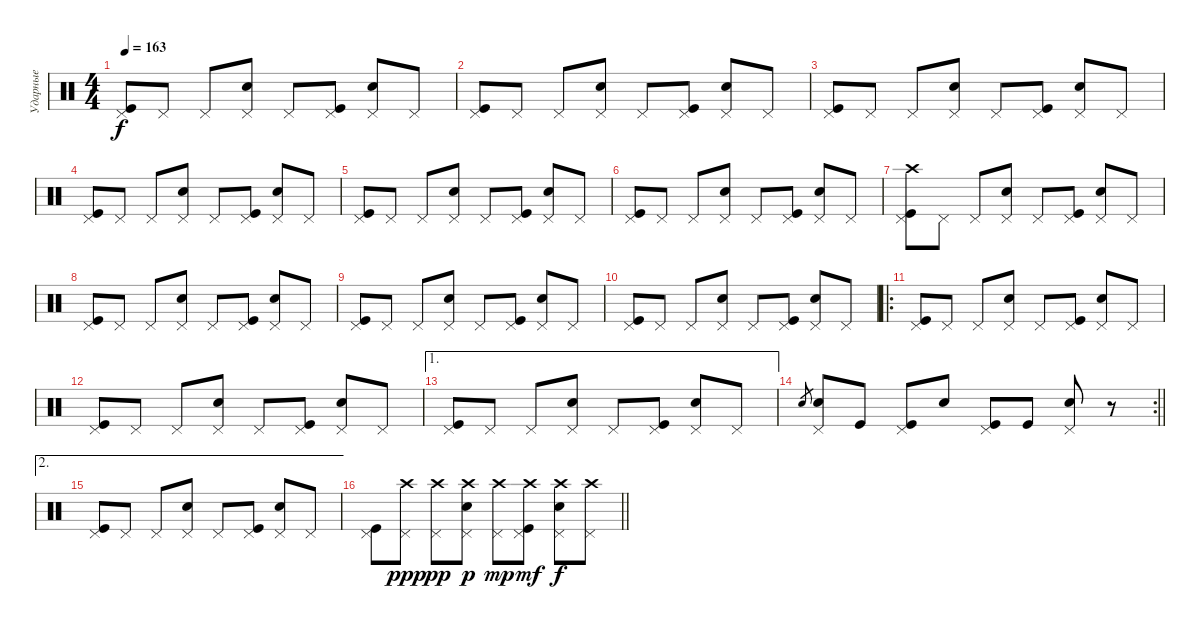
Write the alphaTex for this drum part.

\track ("Ударные" "Ударные") {instrument percussion}
\staff {score}
\articulation defaults
\ts (4 4)
\tempo 163
\clef neutral
\ks c
("Kick (hit)" "Pedal Hi-Hat (hit)").8{dy f} "Pedal Hi-Hat (hit)".8 "Pedal Hi-Hat (hit)".8 ("Pedal Hi-Hat (hit)" "Snare (hit) 2").8 "Pedal Hi-Hat (hit)".8 ("Kick (hit)" "Pedal Hi-Hat (hit)").8 ("Pedal Hi-Hat (hit)" "Snare (hit) 2").8 "Pedal Hi-Hat (hit)".8 |
("Kick (hit)" "Pedal Hi-Hat (hit)").8 "Pedal Hi-Hat (hit)".8 "Pedal Hi-Hat (hit)".8 ("Pedal Hi-Hat (hit)" "Snare (hit) 2").8 "Pedal Hi-Hat (hit)".8 ("Kick (hit)" "Pedal Hi-Hat (hit)").8 ("Pedal Hi-Hat (hit)" "Snare (hit) 2").8 "Pedal Hi-Hat (hit)".8 |
("Kick (hit)" "Pedal Hi-Hat (hit)").8 "Pedal Hi-Hat (hit)".8 "Pedal Hi-Hat (hit)".8 ("Pedal Hi-Hat (hit)" "Snare (hit) 2").8 "Pedal Hi-Hat (hit)".8 ("Kick (hit)" "Pedal Hi-Hat (hit)").8 ("Pedal Hi-Hat (hit)" "Snare (hit) 2").8 "Pedal Hi-Hat (hit)".8 |
("Kick (hit)" "Pedal Hi-Hat (hit)").8 "Pedal Hi-Hat (hit)".8 "Pedal Hi-Hat (hit)".8 ("Pedal Hi-Hat (hit)" "Snare (hit) 2").8 "Pedal Hi-Hat (hit)".8 ("Kick (hit)" "Pedal Hi-Hat (hit)").8 ("Pedal Hi-Hat (hit)" "Snare (hit) 2").8 "Pedal Hi-Hat (hit)".8 |
("Kick (hit)" "Pedal Hi-Hat (hit)").8 "Pedal Hi-Hat (hit)".8 "Pedal Hi-Hat (hit)".8 ("Pedal Hi-Hat (hit)" "Snare (hit) 2").8 "Pedal Hi-Hat (hit)".8 ("Kick (hit)" "Pedal Hi-Hat (hit)").8 ("Pedal Hi-Hat (hit)" "Snare (hit) 2").8 "Pedal Hi-Hat (hit)".8 |
("Kick (hit)" "Pedal Hi-Hat (hit)").8 "Pedal Hi-Hat (hit)".8 "Pedal Hi-Hat (hit)".8 ("Pedal Hi-Hat (hit)" "Snare (hit) 2").8 "Pedal Hi-Hat (hit)".8 ("Kick (hit)" "Pedal Hi-Hat (hit)").8 ("Pedal Hi-Hat (hit)" "Snare (hit) 2").8 "Pedal Hi-Hat (hit)".8 |
("Kick (hit)" "Pedal Hi-Hat (hit)" "Crash high (hit)").8 "Pedal Hi-Hat (hit)".8 "Pedal Hi-Hat (hit)".8 ("Pedal Hi-Hat (hit)" "Snare (hit) 2").8 "Pedal Hi-Hat (hit)".8 ("Kick (hit)" "Pedal Hi-Hat (hit)").8 ("Pedal Hi-Hat (hit)" "Snare (hit) 2").8 "Pedal Hi-Hat (hit)".8 |
("Kick (hit)" "Pedal Hi-Hat (hit)").8 "Pedal Hi-Hat (hit)".8 "Pedal Hi-Hat (hit)".8 ("Pedal Hi-Hat (hit)" "Snare (hit) 2").8 "Pedal Hi-Hat (hit)".8 ("Kick (hit)" "Pedal Hi-Hat (hit)").8 ("Pedal Hi-Hat (hit)" "Snare (hit) 2").8 "Pedal Hi-Hat (hit)".8 |
("Kick (hit)" "Pedal Hi-Hat (hit)").8 "Pedal Hi-Hat (hit)".8 "Pedal Hi-Hat (hit)".8 ("Pedal Hi-Hat (hit)" "Snare (hit) 2").8 "Pedal Hi-Hat (hit)".8 ("Kick (hit)" "Pedal Hi-Hat (hit)").8 ("Pedal Hi-Hat (hit)" "Snare (hit) 2").8 "Pedal Hi-Hat (hit)".8 |
("Kick (hit)" "Pedal Hi-Hat (hit)").8 "Pedal Hi-Hat (hit)".8 "Pedal Hi-Hat (hit)".8 ("Pedal Hi-Hat (hit)" "Snare (hit) 2").8 "Pedal Hi-Hat (hit)".8 ("Kick (hit)" "Pedal Hi-Hat (hit)").8 ("Pedal Hi-Hat (hit)" "Snare (hit) 2").8 "Pedal Hi-Hat (hit)".8 |
\ro
("Kick (hit)" "Pedal Hi-Hat (hit)").8 "Pedal Hi-Hat (hit)".8 "Pedal Hi-Hat (hit)".8 ("Pedal Hi-Hat (hit)" "Snare (hit) 2").8 "Pedal Hi-Hat (hit)".8 ("Kick (hit)" "Pedal Hi-Hat (hit)").8 ("Pedal Hi-Hat (hit)" "Snare (hit) 2").8 "Pedal Hi-Hat (hit)".8 |
("Kick (hit)" "Pedal Hi-Hat (hit)").8 "Pedal Hi-Hat (hit)".8 "Pedal Hi-Hat (hit)".8 ("Pedal Hi-Hat (hit)" "Snare (hit) 2").8 "Pedal Hi-Hat (hit)".8 ("Kick (hit)" "Pedal Hi-Hat (hit)").8 ("Pedal Hi-Hat (hit)" "Snare (hit) 2").8 "Pedal Hi-Hat (hit)".8 |
\ae 1
("Kick (hit)" "Pedal Hi-Hat (hit)").8 "Pedal Hi-Hat (hit)".8 "Pedal Hi-Hat (hit)".8 ("Pedal Hi-Hat (hit)" "Snare (hit) 2").8 "Pedal Hi-Hat (hit)".8 ("Kick (hit)" "Pedal Hi-Hat (hit)").8 ("Pedal Hi-Hat (hit)" "Snare (hit) 2").8 "Pedal Hi-Hat (hit)".8 |
\rc 2
\barLineRight lightlight "Snare (hit) 2".8{gr}
("Pedal Hi-Hat (hit)" "Snare (hit) 2").8 "Kick (hit)".8 ("Kick (hit)" "Pedal Hi-Hat (hit)").8 "Snare (hit) 2".8 ("Kick (hit)" "Pedal Hi-Hat (hit)").8 "Kick (hit)".8 ("Pedal Hi-Hat (hit)" "Snare (hit) 2").8 r.8 |
\ae 2
("Kick (hit)" "Pedal Hi-Hat (hit)").8 "Pedal Hi-Hat (hit)".8 "Pedal Hi-Hat (hit)".8 ("Pedal Hi-Hat (hit)" "Snare (hit) 2").8 "Pedal Hi-Hat (hit)".8 ("Kick (hit)" "Pedal Hi-Hat (hit)").8 ("Pedal Hi-Hat (hit)" "Snare (hit) 2").8 "Pedal Hi-Hat (hit)".8 |
\barLineRight lightlight
("Kick (hit)" "Pedal Hi-Hat (hit)").8 ("Pedal Hi-Hat (hit)" "Crash high (hit)").8{dy ppp} ("Pedal Hi-Hat (hit)" "Crash high (hit)").8{dy pp} ("Pedal Hi-Hat (hit)" "Snare (hit) 2" "Crash high (hit)").8{dy p} ("Pedal Hi-Hat (hit)" "Crash high (hit)").8{dy mp} ("Kick (hit)" "Pedal Hi-Hat (hit)" "Crash high (hit)").8{dy mf} ("Pedal Hi-Hat (hit)" "Snare (hit) 2" "Crash high (hit)").8{dy f} ("Pedal Hi-Hat (hit)" "Crash high (hit)").8
